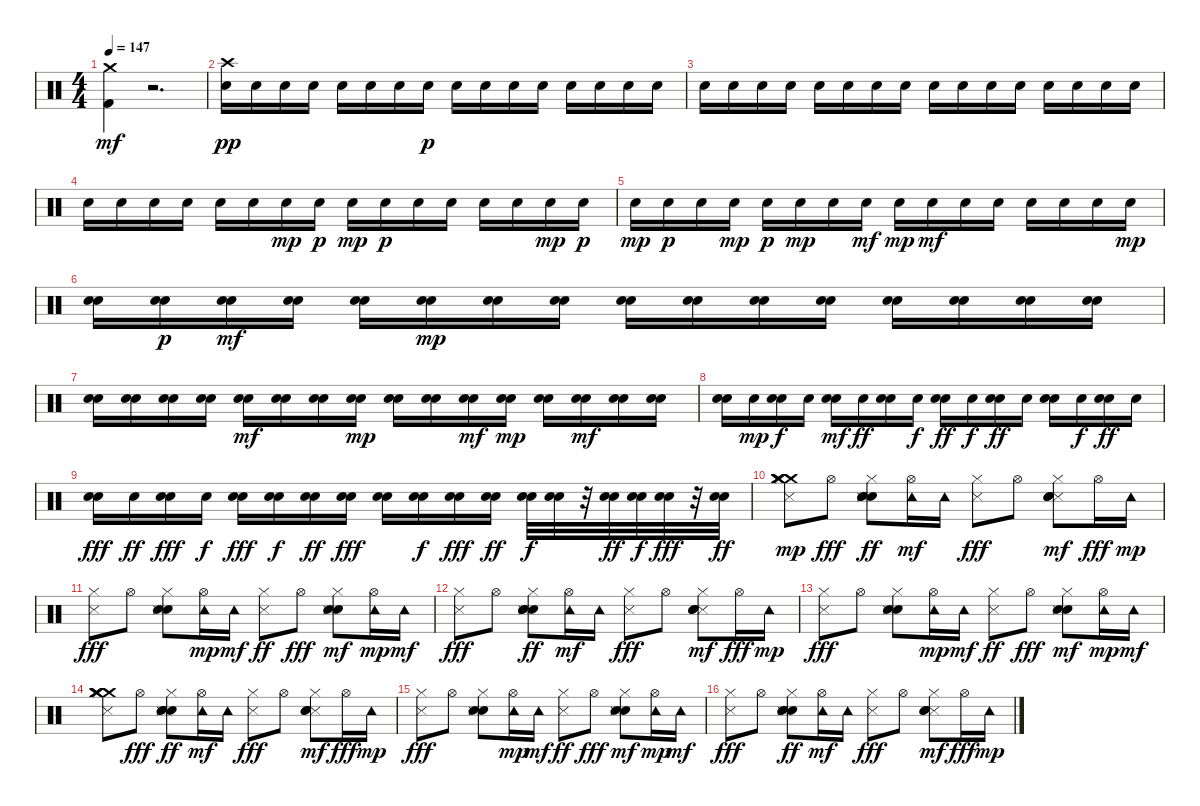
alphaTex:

\track "" {instrument percussion}
\staff {score}
\articulation defaults
\ts (4 4)
\tempo 147
\clef neutral
\ks c
("Crash medium (hit)" "Kick (hit) 2").4{dy mf} r.2{d} |
("Crash high (hit)" "Snare (hit) 2").16{dy pp} "Snare (hit) 2".16 "Snare (hit) 2".16 "Snare (hit) 2".16 "Snare (hit) 2".16 "Snare (hit) 2".16 "Snare (hit) 2".16 "Snare (hit) 2".16{dy p} "Snare (hit) 2".16 "Snare (hit) 2".16 "Snare (hit) 2".16 "Snare (hit) 2".16 "Snare (hit) 2".16 "Snare (hit) 2".16 "Snare (hit) 2".16 "Snare (hit) 2".16 |
"Snare (hit) 2".16 "Snare (hit) 2".16 "Snare (hit) 2".16 "Snare (hit) 2".16 "Snare (hit) 2".16 "Snare (hit) 2".16 "Snare (hit) 2".16 "Snare (hit) 2".16 "Snare (hit) 2".16 "Snare (hit) 2".16 "Snare (hit) 2".16 "Snare (hit) 2".16 "Snare (hit) 2".16 "Snare (hit) 2".16 "Snare (hit) 2".16 "Snare (hit) 2".16 |
"Snare (hit) 2".16 "Snare (hit) 2".16 "Snare (hit) 2".16 "Snare (hit) 2".16 "Snare (hit) 2".16 "Snare (hit) 2".16 "Snare (hit) 2".16{dy mp} "Snare (hit) 2".16{dy p} "Snare (hit) 2".16{dy mp} "Snare (hit) 2".16{dy p} "Snare (hit) 2".16 "Snare (hit) 2".16 "Snare (hit) 2".16 "Snare (hit) 2".16 "Snare (hit) 2".16{dy mp} "Snare (hit) 2".16{dy p} |
"Snare (hit) 2".16{dy mp} "Snare (hit) 2".16{dy p} "Snare (hit) 2".16 "Snare (hit) 2".16{dy mp} "Snare (hit) 2".16{dy p} "Snare (hit) 2".16{dy mp} "Snare (hit) 2".16 "Snare (hit) 2".16{dy mf} "Snare (hit) 2".16{dy mp} "Snare (hit) 2".16{dy mf} "Snare (hit) 2".16 "Snare (hit) 2".16 "Snare (hit) 2".16 "Snare (hit) 2".16 "Snare (hit) 2".16 "Snare (hit) 2".16{dy mp} |
("Snare (hit) 2" "Electric Snare (hit)").16 ("Electric Snare (hit)" "Snare (hit) 2").16{dy p} ("Snare (hit) 2" "Electric Snare (hit)").16{dy mf} ("Snare (hit) 2" "Electric Snare (hit)").16 ("Snare (hit) 2" "Electric Snare (hit)").16 ("Snare (hit) 2" "Electric Snare (hit)").16{dy mp} ("Snare (hit) 2" "Electric Snare (hit)").16 ("Snare (hit) 2" "Electric Snare (hit)").16 ("Snare (hit) 2" "Electric Snare (hit)").16 ("Snare (hit) 2" "Electric Snare (hit)").16 ("Snare (hit) 2" "Electric Snare (hit)").16 ("Snare (hit) 2" "Electric Snare (hit)").16 ("Snare (hit) 2" "Electric Snare (hit)").16 ("Snare (hit) 2" "Electric Snare (hit)").16 ("Snare (hit) 2" "Electric Snare (hit)").16 ("Snare (hit) 2" "Electric Snare (hit)").16 |
("Snare (hit) 2" "Electric Snare (hit)").16 ("Snare (hit) 2" "Electric Snare (hit)").16 ("Snare (hit) 2" "Electric Snare (hit)").16 ("Snare (hit) 2" "Electric Snare (hit)").16 ("Snare (hit) 2" "Electric Snare (hit)").16{dy mf} ("Snare (hit) 2" "Electric Snare (hit)").16 ("Snare (hit) 2" "Electric Snare (hit)").16 ("Snare (hit) 2" "Electric Snare (hit)").16{dy mp} ("Snare (hit) 2" "Electric Snare (hit)").16 ("Electric Snare (hit)" "Snare (hit) 2").16 ("Snare (hit) 2" "Electric Snare (hit)").16{dy mf} ("Snare (hit) 2" "Electric Snare (hit)").16{dy mp} ("Electric Snare (hit)" "Snare (hit) 2").16 ("Snare (hit) 2" "Electric Snare (hit)").16{dy mf} ("Snare (hit) 2" "Electric Snare (hit)").16 ("Snare (hit) 2" "Electric Snare (hit)").16 |
("Snare (hit) 2" "Electric Snare (hit)").16 "Snare (hit) 2".16{dy mp} ("Snare (hit) 2" "Electric Snare (hit)").16{dy f} "Snare (hit) 2".16 ("Snare (hit) 2" "Electric Snare (hit)").16{dy mf} "Snare (hit) 2".16{dy ff} ("Electric Snare (hit)" "Snare (hit) 2").16 "Snare (hit) 2".16{dy f} ("Snare (hit) 2" "Electric Snare (hit)").16{dy ff} "Snare (hit) 2".16{dy f} ("Snare (hit) 2" "Electric Snare (hit)").16{dy ff} "Snare (hit) 2".16 ("Snare (hit) 2" "Electric Snare (hit)").16 "Snare (hit) 2".16{dy f} ("Snare (hit) 2" "Electric Snare (hit)").16{dy ff} "Snare (hit) 2".16 |
("Snare (hit) 2" "Electric Snare (hit)").16{dy fff} "Snare (hit) 2".16{dy ff} ("Snare (hit) 2" "Electric Snare (hit)").16{dy fff} "Snare (hit) 2".16{dy f} ("Snare (hit) 2" "Electric Snare (hit)").16{dy fff} ("Snare (hit) 2" "Electric Snare (hit)").16{dy f} ("Snare (hit) 2" "Electric Snare (hit)").16{dy ff} ("Snare (hit) 2" "Electric Snare (hit)").16{dy fff} ("Snare (hit) 2" "Electric Snare (hit)").16 ("Snare (hit) 2" "Electric Snare (hit)").16{dy f} ("Snare (hit) 2" "Electric Snare (hit)").16{dy fff} ("Snare (hit) 2" "Electric Snare (hit)").16{dy ff} ("Electric Snare (hit)" "Snare (hit) 2").32{dy f} ("Electric Snare (hit)" "Snare (hit) 2").32 r.32 ("Electric Snare (hit)" "Snare (hit) 2").32{dy ff} ("Snare (hit) 2" "Electric Snare (hit)").32{dy f} ("Snare (hit) 2" "Electric Snare (hit)").32{dy fff} r.32 ("Snare (hit) 2" "Electric Snare (hit)").32{dy ff} |
("Crash medium (hit)" "Crash medium (hit)" "Crash medium (hit)" "Hi-Hat (closed)" "Metronome (hit)" "Crash medium (hit)").8{dy mp} "Hi-Hat (open)".8{dy fff} ("Hand Clap (hit)" "Metronome (hit)" "Hi-Hat (closed)" "Snare (hit) 2" "Snare (hit) 2").8{dy ff} ("Hi-Hat (open)" "Tambourine (hit)").16{dy mf} "Tambourine (hit)".16 ("Hi-Hat (closed)" "Metronome (hit)").8{dy fff} "Hi-Hat (open)".8 ("Metronome (hit)" "Hand Clap (hit)" "Hi-Hat (closed)" "Snare (hit) 2").8{dy mf} "Hi-Hat (open)".16{dy fff} "Tambourine (hit)".16{dy mp} |
("Metronome (hit)" "Hi-Hat (closed)").8{dy fff} "Hi-Hat (open)".8 ("Hand Clap (hit)" "Metronome (hit)" "Hi-Hat (closed)" "Snare (hit) 2").8 ("Hi-Hat (open)" "Tambourine (hit)").16{dy mp} "Tambourine (hit)".16{dy mf} ("Metronome (hit)" "Hi-Hat (closed)").8{dy ff} "Hi-Hat (open)".8{dy fff} ("Hand Clap (hit)" "Metronome (hit)" "Hi-Hat (closed)" "Snare (hit) 2").8{dy mf} ("Hi-Hat (open)" "Tambourine (hit)").16{dy mp} "Tambourine (hit)".16{dy mf} |
("Hi-Hat (closed)" "Metronome (hit)").8{dy fff} "Hi-Hat (open)".8 ("Hand Clap (hit)" "Metronome (hit)" "Hi-Hat (closed)" "Snare (hit) 2" "Snare (hit) 2").8{dy ff} ("Hi-Hat (open)" "Tambourine (hit)").16{dy mf} "Tambourine (hit)".16 ("Hi-Hat (closed)" "Metronome (hit)").8{dy fff} "Hi-Hat (open)".8 ("Metronome (hit)" "Hand Clap (hit)" "Hi-Hat (closed)" "Snare (hit) 2").8{dy mf} "Hi-Hat (open)".16{dy fff} "Tambourine (hit)".16{dy mp} |
("Metronome (hit)" "Hi-Hat (closed)").8{dy fff} "Hi-Hat (open)".8 ("Hand Clap (hit)" "Metronome (hit)" "Hi-Hat (closed)" "Snare (hit) 2").8 ("Hi-Hat (open)" "Tambourine (hit)").16{dy mp} "Tambourine (hit)".16{dy mf} ("Metronome (hit)" "Hi-Hat (closed)").8{dy ff} "Hi-Hat (open)".8{dy fff} ("Hand Clap (hit)" "Metronome (hit)" "Hi-Hat (closed)" "Snare (hit) 2").8{dy mf} ("Hi-Hat (open)" "Tambourine (hit)").16{dy mp} "Tambourine (hit)".16{dy mf} |
("Crash medium (hit)" "Crash medium (hit)" "Hi-Hat (closed)" "Metronome (hit)" "Crash medium (hit)" "Crash medium (hit)").8 "Hi-Hat (open)".8{dy fff} ("Hand Clap (hit)" "Metronome (hit)" "Hi-Hat (closed)" "Snare (hit) 2" "Snare (hit) 2").8{dy ff} ("Hi-Hat (open)" "Tambourine (hit)").16{dy mf} "Tambourine (hit)".16 ("Hi-Hat (closed)" "Metronome (hit)").8{dy fff} "Hi-Hat (open)".8 ("Metronome (hit)" "Hand Clap (hit)" "Hi-Hat (closed)" "Snare (hit) 2").8{dy mf} "Hi-Hat (open)".16{dy fff} "Tambourine (hit)".16{dy mp} |
("Metronome (hit)" "Hi-Hat (closed)").8{dy fff} "Hi-Hat (open)".8 ("Hand Clap (hit)" "Metronome (hit)" "Hi-Hat (closed)" "Snare (hit) 2").8 ("Hi-Hat (open)" "Tambourine (hit)").16{dy mp} "Tambourine (hit)".16{dy mf} ("Metronome (hit)" "Hi-Hat (closed)").8{dy ff} "Hi-Hat (open)".8{dy fff} ("Hand Clap (hit)" "Metronome (hit)" "Hi-Hat (closed)" "Snare (hit) 2").8{dy mf} ("Hi-Hat (open)" "Tambourine (hit)").16{dy mp} "Tambourine (hit)".16{dy mf} |
("Hi-Hat (closed)" "Metronome (hit)").8{dy fff} "Hi-Hat (open)".8 ("Hand Clap (hit)" "Metronome (hit)" "Hi-Hat (closed)" "Snare (hit) 2" "Snare (hit) 2").8{dy ff} ("Hi-Hat (open)" "Tambourine (hit)").16{dy mf} "Tambourine (hit)".16 ("Hi-Hat (closed)" "Metronome (hit)").8{dy fff} "Hi-Hat (open)".8 ("Metronome (hit)" "Hand Clap (hit)" "Hi-Hat (closed)" "Snare (hit) 2").8{dy mf} "Hi-Hat (open)".16{dy fff} "Tambourine (hit)".16{dy mp}
